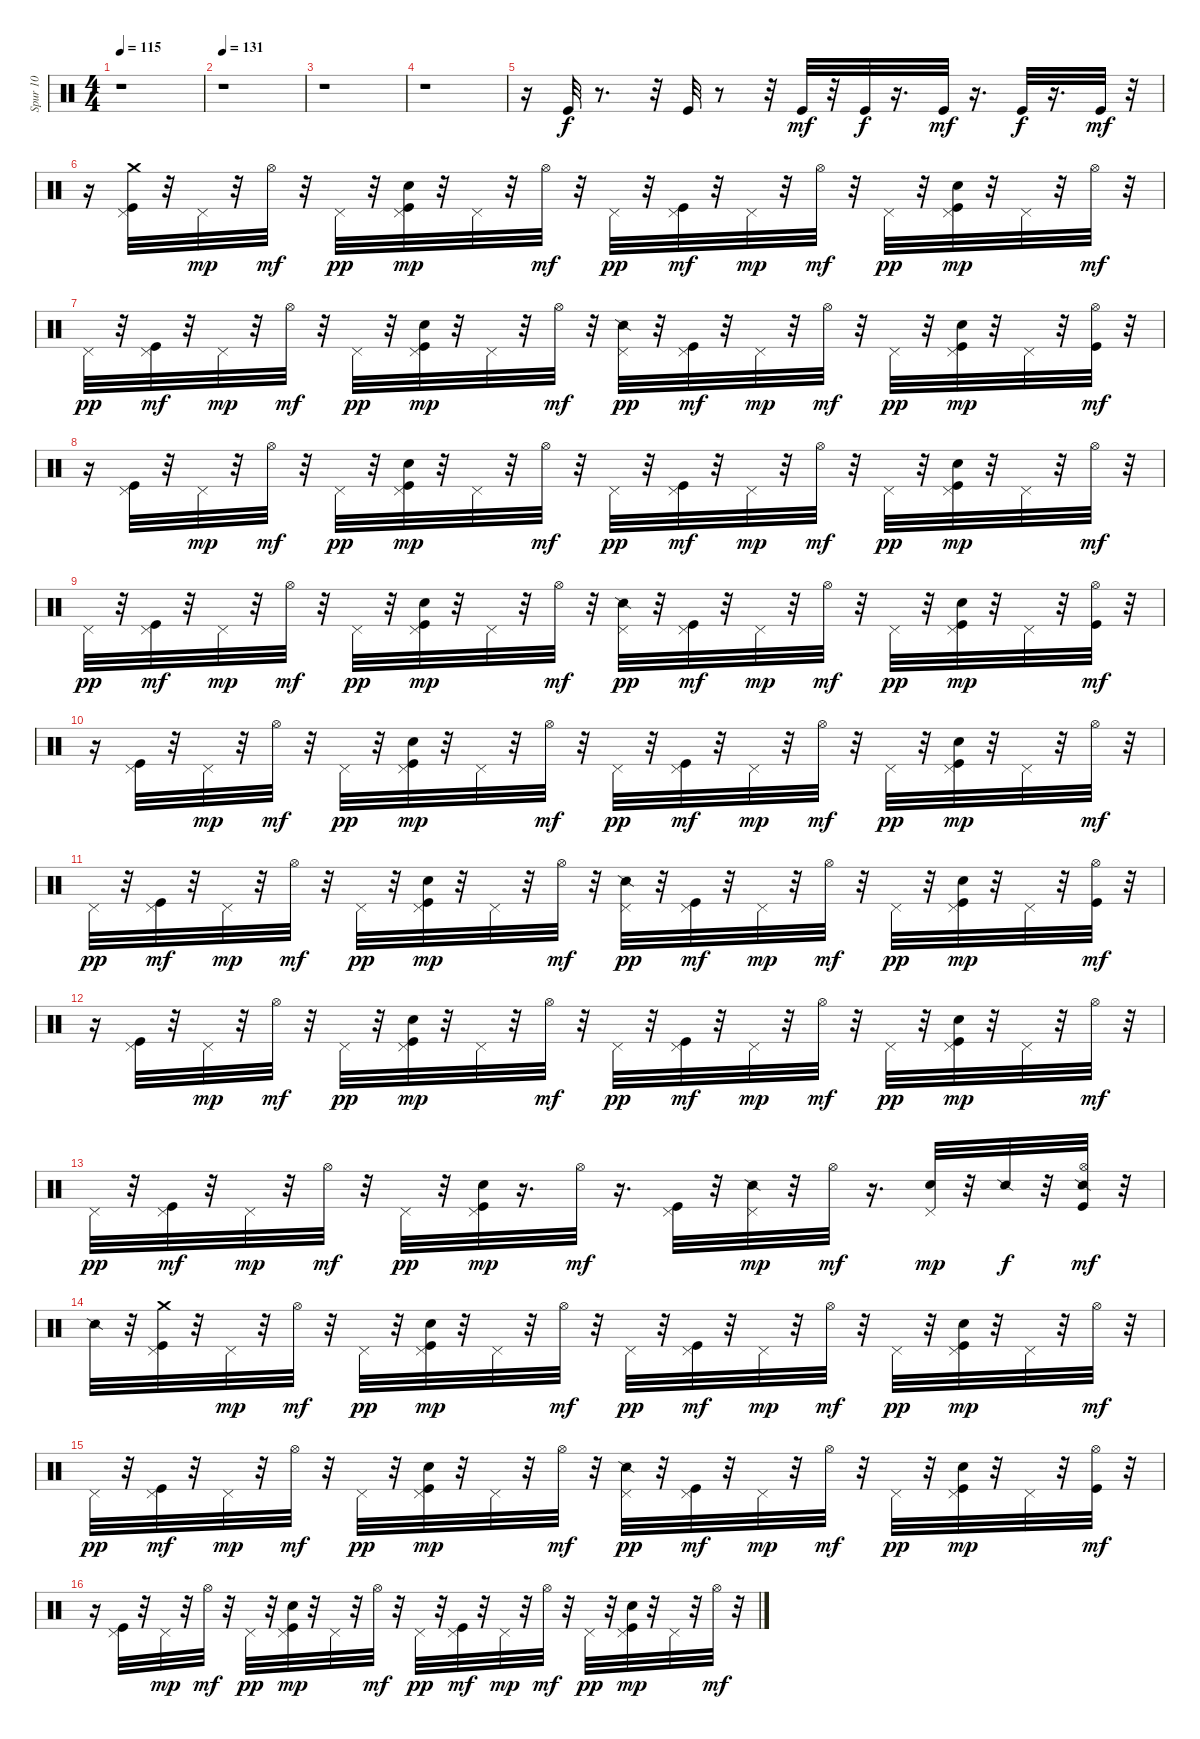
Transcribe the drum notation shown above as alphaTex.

\track ("Spur 10" "Spur 10") {instrument percussion}
\staff {score}
\articulation defaults
\ts (4 4)
\tempo 115
\clef neutral
\ks c
r.1{dy f} |
\tempo 131
r.1 |
r.1 |
r.1 |
r.16 "Kick (hit)".32 r.8{d} r.32 "Kick (hit)".32 r.8 r.32 "Kick (hit)".32{dy mf} r.32 "Kick (hit)".32{dy f} r.16{d} "Kick (hit)".32{dy mf} r.16{d} "Kick (hit)".32{dy f} r.16{d} "Kick (hit)".32{dy mf} r.32 |
r.16 ("Crash medium (hit)" "Kick (hit)" "Pedal Hi-Hat (hit)").32 r.32 "Pedal Hi-Hat (hit)".32{dy mp} r.32 "Hi-Hat (open)".32{dy mf} r.32 "Pedal Hi-Hat (hit)".32{dy pp} r.32 ("Kick (hit)" "Hand Clap (hit)" "Pedal Hi-Hat (hit)").32{dy mp} r.32 "Pedal Hi-Hat (hit)".32 r.32 "Hi-Hat (open)".32{dy mf} r.32 "Pedal Hi-Hat (hit)".32{dy pp} r.32 ("Kick (hit)" "Pedal Hi-Hat (hit)").32{dy mf} r.32 "Pedal Hi-Hat (hit)".32{dy mp} r.32 "Hi-Hat (open)".32{dy mf} r.32 "Pedal Hi-Hat (hit)".32{dy pp} r.32 ("Kick (hit)" "Hand Clap (hit)" "Pedal Hi-Hat (hit)").32{dy mp} r.32 "Pedal Hi-Hat (hit)".32 r.32 "Hi-Hat (open)".32{dy mf} r.32 |
"Pedal Hi-Hat (hit)".32{dy pp} r.32 ("Kick (hit)" "Pedal Hi-Hat (hit)").32{dy mf} r.32 "Pedal Hi-Hat (hit)".32{dy mp} r.32 "Hi-Hat (open)".32{dy mf} r.32 "Pedal Hi-Hat (hit)".32{dy pp} r.32 ("Kick (hit)" "Hand Clap (hit)" "Pedal Hi-Hat (hit)").32{dy mp} r.32 "Pedal Hi-Hat (hit)".32 r.32 "Hi-Hat (open)".32{dy mf} r.32 ("Pedal Hi-Hat (hit)" "Snare (side stick) 2").32{dy pp} r.32 ("Kick (hit)" "Pedal Hi-Hat (hit)").32{dy mf} r.32 "Pedal Hi-Hat (hit)".32{dy mp} r.32 "Hi-Hat (open)".32{dy mf} r.32 "Pedal Hi-Hat (hit)".32{dy pp} r.32 ("Kick (hit)" "Hand Clap (hit)" "Pedal Hi-Hat (hit)").32{dy mp} r.32 "Pedal Hi-Hat (hit)".32 r.32 ("Kick (hit)" "Hi-Hat (open)").32{dy mf} r.32 |
r.16 ("Kick (hit)" "Pedal Hi-Hat (hit)").32 r.32 "Pedal Hi-Hat (hit)".32{dy mp} r.32 "Hi-Hat (open)".32{dy mf} r.32 "Pedal Hi-Hat (hit)".32{dy pp} r.32 ("Kick (hit)" "Hand Clap (hit)" "Pedal Hi-Hat (hit)").32{dy mp} r.32 "Pedal Hi-Hat (hit)".32 r.32 "Hi-Hat (open)".32{dy mf} r.32 "Pedal Hi-Hat (hit)".32{dy pp} r.32 ("Kick (hit)" "Pedal Hi-Hat (hit)").32{dy mf} r.32 "Pedal Hi-Hat (hit)".32{dy mp} r.32 "Hi-Hat (open)".32{dy mf} r.32 "Pedal Hi-Hat (hit)".32{dy pp} r.32 ("Kick (hit)" "Hand Clap (hit)" "Pedal Hi-Hat (hit)").32{dy mp} r.32 "Pedal Hi-Hat (hit)".32 r.32 "Hi-Hat (open)".32{dy mf} r.32 |
"Pedal Hi-Hat (hit)".32{dy pp} r.32 ("Kick (hit)" "Pedal Hi-Hat (hit)").32{dy mf} r.32 "Pedal Hi-Hat (hit)".32{dy mp} r.32 "Hi-Hat (open)".32{dy mf} r.32 "Pedal Hi-Hat (hit)".32{dy pp} r.32 ("Kick (hit)" "Hand Clap (hit)" "Pedal Hi-Hat (hit)").32{dy mp} r.32 "Pedal Hi-Hat (hit)".32 r.32 "Hi-Hat (open)".32{dy mf} r.32 ("Pedal Hi-Hat (hit)" "Snare (side stick) 2").32{dy pp} r.32 ("Kick (hit)" "Pedal Hi-Hat (hit)").32{dy mf} r.32 "Pedal Hi-Hat (hit)".32{dy mp} r.32 "Hi-Hat (open)".32{dy mf} r.32 "Pedal Hi-Hat (hit)".32{dy pp} r.32 ("Kick (hit)" "Hand Clap (hit)" "Pedal Hi-Hat (hit)").32{dy mp} r.32 "Pedal Hi-Hat (hit)".32 r.32 ("Kick (hit)" "Hi-Hat (open)").32{dy mf} r.32 |
r.16 ("Kick (hit)" "Pedal Hi-Hat (hit)").32 r.32 "Pedal Hi-Hat (hit)".32{dy mp} r.32 "Hi-Hat (open)".32{dy mf} r.32 "Pedal Hi-Hat (hit)".32{dy pp} r.32 ("Kick (hit)" "Hand Clap (hit)" "Pedal Hi-Hat (hit)").32{dy mp} r.32 "Pedal Hi-Hat (hit)".32 r.32 "Hi-Hat (open)".32{dy mf} r.32 "Pedal Hi-Hat (hit)".32{dy pp} r.32 ("Kick (hit)" "Pedal Hi-Hat (hit)").32{dy mf} r.32 "Pedal Hi-Hat (hit)".32{dy mp} r.32 "Hi-Hat (open)".32{dy mf} r.32 "Pedal Hi-Hat (hit)".32{dy pp} r.32 ("Kick (hit)" "Hand Clap (hit)" "Pedal Hi-Hat (hit)").32{dy mp} r.32 "Pedal Hi-Hat (hit)".32 r.32 "Hi-Hat (open)".32{dy mf} r.32 |
"Pedal Hi-Hat (hit)".32{dy pp} r.32 ("Kick (hit)" "Pedal Hi-Hat (hit)").32{dy mf} r.32 "Pedal Hi-Hat (hit)".32{dy mp} r.32 "Hi-Hat (open)".32{dy mf} r.32 "Pedal Hi-Hat (hit)".32{dy pp} r.32 ("Kick (hit)" "Hand Clap (hit)" "Pedal Hi-Hat (hit)").32{dy mp} r.32 "Pedal Hi-Hat (hit)".32 r.32 "Hi-Hat (open)".32{dy mf} r.32 ("Pedal Hi-Hat (hit)" "Snare (side stick) 2").32{dy pp} r.32 ("Kick (hit)" "Pedal Hi-Hat (hit)").32{dy mf} r.32 "Pedal Hi-Hat (hit)".32{dy mp} r.32 "Hi-Hat (open)".32{dy mf} r.32 "Pedal Hi-Hat (hit)".32{dy pp} r.32 ("Kick (hit)" "Hand Clap (hit)" "Pedal Hi-Hat (hit)").32{dy mp} r.32 "Pedal Hi-Hat (hit)".32 r.32 ("Kick (hit)" "Hi-Hat (open)").32{dy mf} r.32 |
r.16 ("Kick (hit)" "Pedal Hi-Hat (hit)").32 r.32 "Pedal Hi-Hat (hit)".32{dy mp} r.32 "Hi-Hat (open)".32{dy mf} r.32 "Pedal Hi-Hat (hit)".32{dy pp} r.32 ("Kick (hit)" "Hand Clap (hit)" "Pedal Hi-Hat (hit)").32{dy mp} r.32 "Pedal Hi-Hat (hit)".32 r.32 "Hi-Hat (open)".32{dy mf} r.32 "Pedal Hi-Hat (hit)".32{dy pp} r.32 ("Kick (hit)" "Pedal Hi-Hat (hit)").32{dy mf} r.32 "Pedal Hi-Hat (hit)".32{dy mp} r.32 "Hi-Hat (open)".32{dy mf} r.32 "Pedal Hi-Hat (hit)".32{dy pp} r.32 ("Kick (hit)" "Hand Clap (hit)" "Pedal Hi-Hat (hit)").32{dy mp} r.32 "Pedal Hi-Hat (hit)".32 r.32 "Hi-Hat (open)".32{dy mf} r.32 |
"Pedal Hi-Hat (hit)".32{dy pp} r.32 ("Kick (hit)" "Pedal Hi-Hat (hit)").32{dy mf} r.32 "Pedal Hi-Hat (hit)".32{dy mp} r.32 "Hi-Hat (open)".32{dy mf} r.32 "Pedal Hi-Hat (hit)".32{dy pp} r.32 ("Kick (hit)" "Hand Clap (hit)" "Pedal Hi-Hat (hit)").32{dy mp} r.16{d} "Hi-Hat (open)".32{dy mf} r.16{d} ("Kick (hit)" "Pedal Hi-Hat (hit)").32 r.32 ("Snare (side stick) 2" "Pedal Hi-Hat (hit)").32{dy mp} r.32 "Hi-Hat (open)".32{dy mf} r.16{d} ("Hand Clap (hit)" "Pedal Hi-Hat (hit)").32{dy mp} r.32 "Snare (side stick) 2".32{dy f} r.32 ("Snare (side stick) 2" "Kick (hit)" "Hi-Hat (open)").32{dy mf} r.32 |
"Snare (side stick) 2".32 r.32 ("Crash medium (hit)" "Kick (hit)" "Pedal Hi-Hat (hit)").32 r.32 "Pedal Hi-Hat (hit)".32{dy mp} r.32 "Hi-Hat (open)".32{dy mf} r.32 "Pedal Hi-Hat (hit)".32{dy pp} r.32 ("Kick (hit)" "Hand Clap (hit)" "Pedal Hi-Hat (hit)").32{dy mp} r.32 "Pedal Hi-Hat (hit)".32 r.32 "Hi-Hat (open)".32{dy mf} r.32 "Pedal Hi-Hat (hit)".32{dy pp} r.32 ("Kick (hit)" "Pedal Hi-Hat (hit)").32{dy mf} r.32 "Pedal Hi-Hat (hit)".32{dy mp} r.32 "Hi-Hat (open)".32{dy mf} r.32 "Pedal Hi-Hat (hit)".32{dy pp} r.32 ("Kick (hit)" "Hand Clap (hit)" "Pedal Hi-Hat (hit)").32{dy mp} r.32 "Pedal Hi-Hat (hit)".32 r.32 "Hi-Hat (open)".32{dy mf} r.32 |
"Pedal Hi-Hat (hit)".32{dy pp} r.32 ("Kick (hit)" "Pedal Hi-Hat (hit)").32{dy mf} r.32 "Pedal Hi-Hat (hit)".32{dy mp} r.32 "Hi-Hat (open)".32{dy mf} r.32 "Pedal Hi-Hat (hit)".32{dy pp} r.32 ("Kick (hit)" "Hand Clap (hit)" "Pedal Hi-Hat (hit)").32{dy mp} r.32 "Pedal Hi-Hat (hit)".32 r.32 "Hi-Hat (open)".32{dy mf} r.32 ("Pedal Hi-Hat (hit)" "Snare (side stick) 2").32{dy pp} r.32 ("Kick (hit)" "Pedal Hi-Hat (hit)").32{dy mf} r.32 "Pedal Hi-Hat (hit)".32{dy mp} r.32 "Hi-Hat (open)".32{dy mf} r.32 "Pedal Hi-Hat (hit)".32{dy pp} r.32 ("Kick (hit)" "Hand Clap (hit)" "Pedal Hi-Hat (hit)").32{dy mp} r.32 "Pedal Hi-Hat (hit)".32 r.32 ("Kick (hit)" "Hi-Hat (open)").32{dy mf} r.32 |
r.16 ("Kick (hit)" "Pedal Hi-Hat (hit)").32 r.32 "Pedal Hi-Hat (hit)".32{dy mp} r.32 "Hi-Hat (open)".32{dy mf} r.32 "Pedal Hi-Hat (hit)".32{dy pp} r.32 ("Kick (hit)" "Hand Clap (hit)" "Pedal Hi-Hat (hit)").32{dy mp} r.32 "Pedal Hi-Hat (hit)".32 r.32 "Hi-Hat (open)".32{dy mf} r.32 "Pedal Hi-Hat (hit)".32{dy pp} r.32 ("Kick (hit)" "Pedal Hi-Hat (hit)").32{dy mf} r.32 "Pedal Hi-Hat (hit)".32{dy mp} r.32 "Hi-Hat (open)".32{dy mf} r.32 "Pedal Hi-Hat (hit)".32{dy pp} r.32 ("Kick (hit)" "Hand Clap (hit)" "Pedal Hi-Hat (hit)").32{dy mp} r.32 "Pedal Hi-Hat (hit)".32 r.32 "Hi-Hat (open)".32{dy mf} r.32
